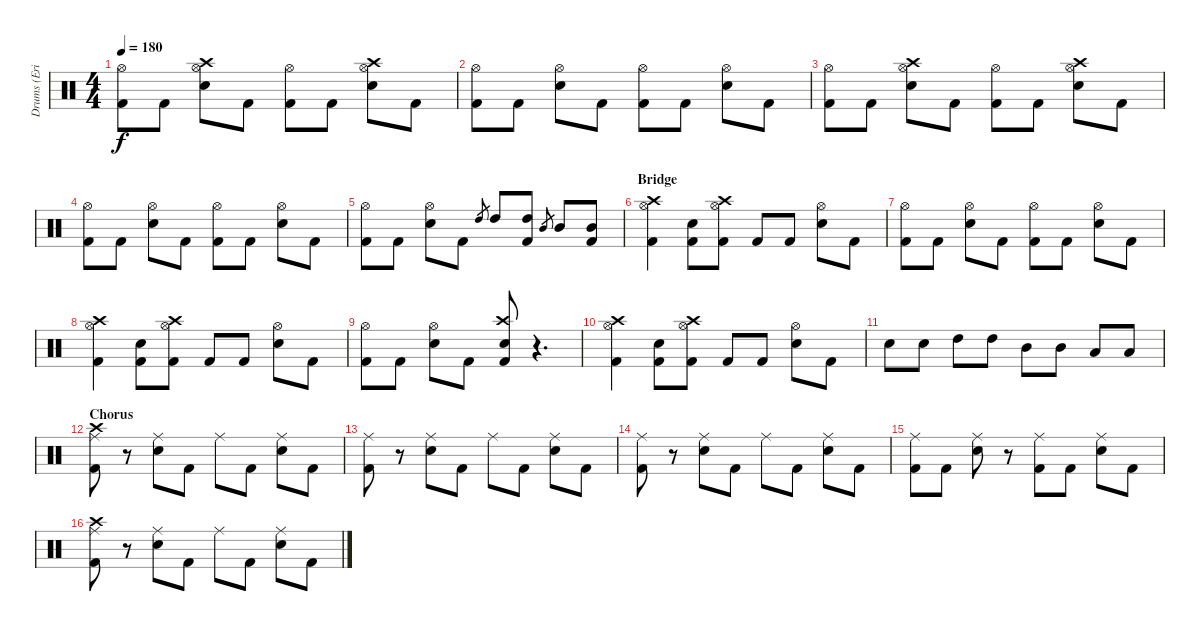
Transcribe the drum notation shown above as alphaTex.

\track ("Drums (Eric Young)" "Drums (Eri") {instrument percussion}
\staff {score}
\articulation defaults
\ts (4 4)
\tempo 180
\clef neutral
\ks c
("Hi-Hat (open)" "Kick (hit) 2").8{dy f} "Kick (hit) 2".8 ("Crash high (hit)" "Hi-Hat (open)" "Snare (hit) 2").8 "Kick (hit) 2".8 ("Hi-Hat (open)" "Kick (hit) 2").8 "Kick (hit) 2".8 ("Crash high (hit)" "Hi-Hat (open)" "Snare (hit) 2").8 "Kick (hit) 2".8 |
("Hi-Hat (open)" "Kick (hit) 2").8 "Kick (hit) 2".8 ("Hi-Hat (open)" "Snare (hit) 2").8 "Kick (hit) 2".8 ("Hi-Hat (open)" "Kick (hit) 2").8 "Kick (hit) 2".8 ("Hi-Hat (open)" "Snare (hit) 2").8 "Kick (hit) 2".8 |
("Hi-Hat (open)" "Kick (hit) 2").8 "Kick (hit) 2".8 ("Crash high (hit)" "Hi-Hat (open)" "Snare (hit) 2").8 "Kick (hit) 2".8 ("Hi-Hat (open)" "Kick (hit) 2").8 "Kick (hit) 2".8 ("Crash high (hit)" "Hi-Hat (open)" "Snare (hit) 2").8 "Kick (hit) 2".8 |
("Hi-Hat (open)" "Kick (hit) 2").8 "Kick (hit) 2".8 ("Hi-Hat (open)" "Snare (hit) 2").8 "Kick (hit) 2".8 ("Hi-Hat (open)" "Kick (hit) 2").8 "Kick (hit) 2".8 ("Hi-Hat (open)" "Snare (hit) 2").8 "Kick (hit) 2".8 |
("Hi-Hat (open)" "Kick (hit) 2").8 "Kick (hit) 2".8 ("Hi-Hat (open)" "Snare (hit) 2").8 "Kick (hit) 2".8 "High Tom (hit)".8{gr} "High Tom (hit)".8 ("High Tom (hit)" "Kick (hit) 2").8 "Mid Tom (hit)".8{gr} "Mid Tom (hit)".8 ("Mid Tom (hit)" "Kick (hit) 2").8 |
\section ("" "Bridge")
("Crash high (hit)" "Hi-Hat (open)" "Kick (hit) 2").4 ("Snare (hit) 2" "Kick (hit) 2").8 ("Crash high (hit)" "Hi-Hat (open)" "Kick (hit) 2").8 "Kick (hit) 2".8 "Kick (hit) 2".8 ("Hi-Hat (open)" "Snare (hit) 2").8 "Kick (hit) 2".8 |
("Hi-Hat (open)" "Kick (hit) 2").8 "Kick (hit) 2".8 ("Hi-Hat (open)" "Snare (hit) 2").8 "Kick (hit) 2".8 ("Hi-Hat (open)" "Kick (hit) 2").8 "Kick (hit) 2".8 ("Hi-Hat (open)" "Snare (hit) 2").8 "Kick (hit) 2".8 |
("Crash high (hit)" "Hi-Hat (open)" "Kick (hit) 2").4 ("Snare (hit) 2" "Kick (hit) 2").8 ("Crash high (hit)" "Hi-Hat (open)" "Kick (hit) 2").8 "Kick (hit) 2".8 "Kick (hit) 2".8 ("Hi-Hat (open)" "Snare (hit) 2").8 "Kick (hit) 2".8 |
("Hi-Hat (open)" "Kick (hit) 2").8 "Kick (hit) 2".8 ("Hi-Hat (open)" "Snare (hit) 2").8 "Kick (hit) 2".8 ("Crash high (hit)" "Snare (hit) 2" "Kick (hit) 2").8 r.4{d} |
("Crash high (hit)" "Hi-Hat (open)" "Kick (hit) 2").4 ("Snare (hit) 2" "Kick (hit) 2").8 ("Crash high (hit)" "Hi-Hat (open)" "Kick (hit) 2").8 "Kick (hit) 2".8 "Kick (hit) 2".8 ("Hi-Hat (open)" "Snare (hit) 2").8 "Kick (hit) 2".8 |
"Snare (hit) 2".8 "Snare (hit) 2".8 "High Tom (hit)".8 "High Tom (hit)".8 "Mid Tom (hit)".8 "Mid Tom (hit)".8 "Low Tom (hit)".8 "Low Tom (hit)".8 |
\section ("" "Chorus")
("Crash high (hit)" "Ride (middle)" "Kick (hit) 2").8 r.8 ("Ride (middle)" "Snare (hit) 2").8 "Kick (hit) 2".8 "Ride (middle)".8 "Kick (hit) 2".8 ("Ride (middle)" "Snare (hit) 2").8 "Kick (hit) 2".8 |
("Ride (middle)" "Kick (hit) 2").8 r.8 ("Ride (middle)" "Snare (hit) 2").8 "Kick (hit) 2".8 "Ride (middle)".8 "Kick (hit) 2".8 ("Ride (middle)" "Snare (hit) 2").8 "Kick (hit) 2".8 |
("Ride (middle)" "Kick (hit) 2").8 r.8 ("Ride (middle)" "Snare (hit) 2").8 "Kick (hit) 2".8 "Ride (middle)".8 "Kick (hit) 2".8 ("Ride (middle)" "Snare (hit) 2").8 "Kick (hit) 2".8 |
("Ride (middle)" "Kick (hit) 2").8 "Kick (hit) 2".8 ("Ride (middle)" "Snare (hit) 2").8 r.8 ("Ride (middle)" "Kick (hit) 2").8 "Kick (hit) 2".8 ("Ride (middle)" "Snare (hit) 2").8 "Kick (hit) 2".8 |
("Crash high (hit)" "Ride (middle)" "Kick (hit) 2").8 r.8 ("Ride (middle)" "Snare (hit) 2").8 "Kick (hit) 2".8 "Ride (middle)".8 "Kick (hit) 2".8 ("Ride (middle)" "Snare (hit) 2").8 "Kick (hit) 2".8
